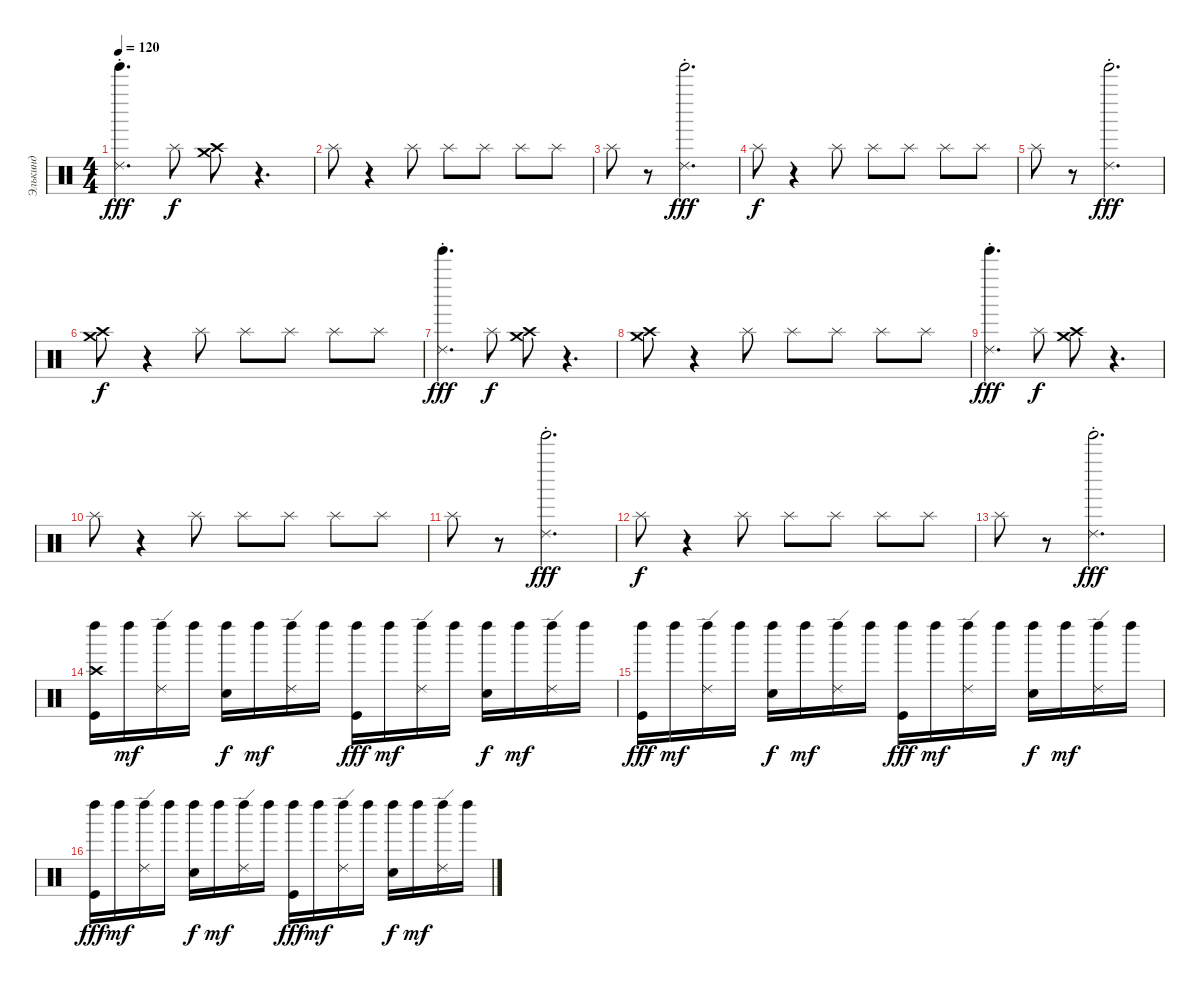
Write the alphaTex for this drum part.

\track ("Элькинд" "Элькинд") {instrument percussion}
\staff {score}
\articulation defaults
\ts (4 4)
\tempo 120
\clef neutral
\ks c
("Tinkle Bell (hit)" "Ride (choke) 2").4{d dy fff} "Splash (hit)".8{dy f} ("Crash high (hit)" "Crash medium (hit)").8 r.4{d} |
"Splash (hit)".8 r.4 "Splash (hit)".8 "Splash (hit)".8 "Splash (hit)".8 "Splash (hit)".8 "Splash (hit)".8 |
"Splash (hit)".8 r.8 ("Tinkle Bell (hit)" "Ride (choke) 2").2{d dy fff} |
"Splash (hit)".8{dy f} r.4 "Splash (hit)".8 "Splash (hit)".8 "Splash (hit)".8 "Splash (hit)".8 "Splash (hit)".8 |
"Splash (hit)".8 r.8 ("Tinkle Bell (hit)" "Ride (choke) 2").2{d dy fff} |
("Crash high (hit)" "Crash medium (hit)").8{dy f} r.4 "Splash (hit)".8 "Splash (hit)".8 "Splash (hit)".8 "Splash (hit)".8 "Splash (hit)".8 |
("Tinkle Bell (hit)" "Ride (choke) 2").4{d dy fff} "Splash (hit)".8{dy f} ("Crash high (hit)" "Crash medium (hit)").8 r.4{d} |
("Crash high (hit)" "Crash medium (hit)").8 r.4 "Splash (hit)".8 "Splash (hit)".8 "Splash (hit)".8 "Splash (hit)".8 "Splash (hit)".8 |
("Tinkle Bell (hit)" "Ride (choke) 2").4{d dy fff} "Splash (hit)".8{dy f} ("Crash high (hit)" "Crash medium (hit)").8 r.4{d} |
"Splash (hit)".8 r.4 "Splash (hit)".8 "Splash (hit)".8 "Splash (hit)".8 "Splash (hit)".8 "Splash (hit)".8 |
"Splash (hit)".8 r.8 ("Tinkle Bell (hit)" "Ride (choke) 2").2{d dy fff} |
"Splash (hit)".8{dy f} r.4 "Splash (hit)".8 "Splash (hit)".8 "Splash (hit)".8 "Splash (hit)".8 "Splash (hit)".8 |
"Splash (hit)".8 r.8 ("Tinkle Bell (hit)" "Ride (choke) 2").2{d dy fff} |
("Left Maraca (hit)" "Crash high (hit)" "Kick (hit)").16 "Left Maraca (hit)".16{dy mf} ("Left Maraca (hit)" "Ride (edge) 2").16 "Left Maraca (hit)".16 ("Left Maraca (hit)" "Electric Snare (hit)").16{dy f} "Left Maraca (hit)".16{dy mf} ("Left Maraca (hit)" "Ride (edge) 2").16 "Left Maraca (hit)".16 ("Left Maraca (hit)" "Kick (hit)").16{dy fff} "Left Maraca (hit)".16{dy mf} ("Left Maraca (hit)" "Ride (edge) 2").16 "Left Maraca (hit)".16 ("Left Maraca (hit)" "Electric Snare (hit)").16{dy f} "Left Maraca (hit)".16{dy mf} ("Left Maraca (hit)" "Ride (edge) 2").16 "Left Maraca (hit)".16 |
("Left Maraca (hit)" "Kick (hit)").16{dy fff} "Left Maraca (hit)".16{dy mf} ("Left Maraca (hit)" "Ride (edge) 2").16 "Left Maraca (hit)".16 ("Left Maraca (hit)" "Electric Snare (hit)").16{dy f} "Left Maraca (hit)".16{dy mf} ("Left Maraca (hit)" "Ride (edge) 2").16 "Left Maraca (hit)".16 ("Left Maraca (hit)" "Kick (hit)").16{dy fff} "Left Maraca (hit)".16{dy mf} ("Left Maraca (hit)" "Ride (edge) 2").16 "Left Maraca (hit)".16 ("Left Maraca (hit)" "Electric Snare (hit)").16{dy f} "Left Maraca (hit)".16{dy mf} ("Left Maraca (hit)" "Ride (edge) 2").16 "Left Maraca (hit)".16 |
("Left Maraca (hit)" "Kick (hit)").16{dy fff} "Left Maraca (hit)".16{dy mf} ("Left Maraca (hit)" "Ride (edge) 2").16 "Left Maraca (hit)".16 ("Left Maraca (hit)" "Electric Snare (hit)").16{dy f} "Left Maraca (hit)".16{dy mf} ("Left Maraca (hit)" "Ride (edge) 2").16 "Left Maraca (hit)".16 ("Left Maraca (hit)" "Kick (hit)").16{dy fff} "Left Maraca (hit)".16{dy mf} ("Left Maraca (hit)" "Ride (edge) 2").16 "Left Maraca (hit)".16 ("Left Maraca (hit)" "Electric Snare (hit)").16{dy f} "Left Maraca (hit)".16{dy mf} ("Left Maraca (hit)" "Ride (edge) 2").16 "Left Maraca (hit)".16
